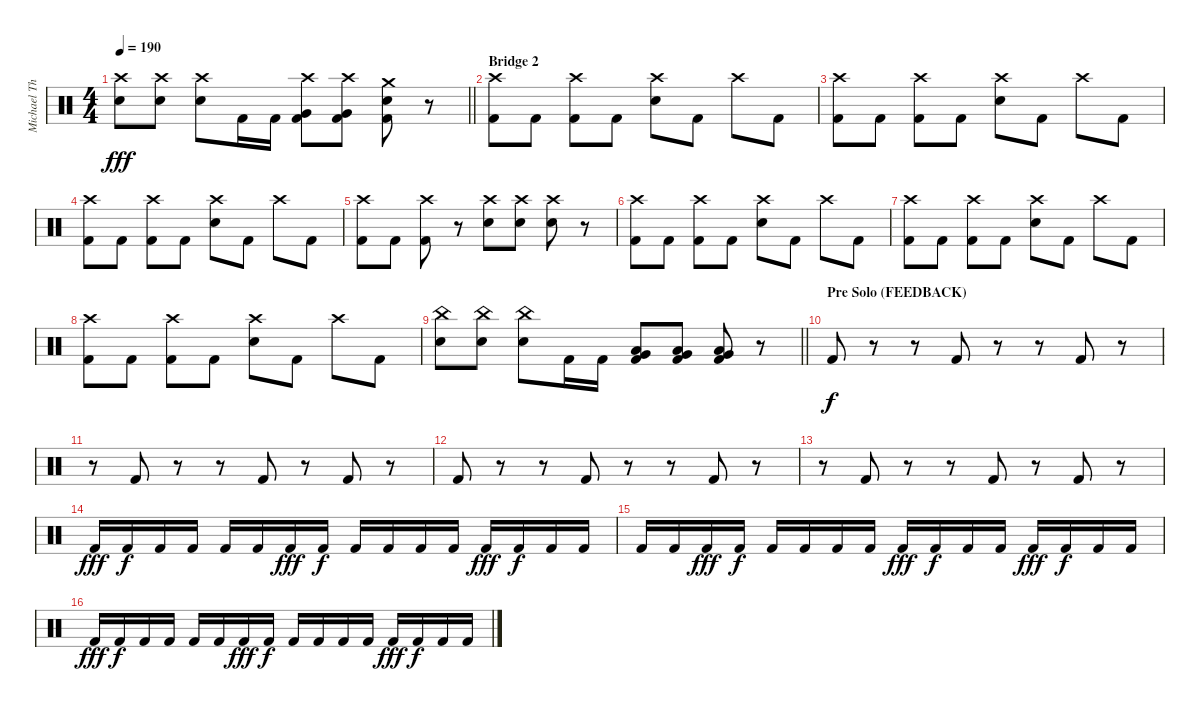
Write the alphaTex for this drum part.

\track ("Michael Thomas Жжёт!" "Michael Th") {instrument percussion}
\staff {score}
\articulation defaults
\ts (4 4)
\tempo 190
\clef neutral
\barLineRight lightlight
\ks c
("Crash high (hit)" "Electric Snare (hit)").8{dy fff} ("Crash high (hit)" "Electric Snare (hit)").8 ("Crash high (hit)" "Electric Snare (hit)").8 "Kick (hit) 2".16 "Kick (hit) 2".16 ("Crash high (hit)" "Very Low Tom (hit)" "Kick (hit) 2").8 ("Crash high (hit)" "Very Low Tom (hit)" "Kick (hit) 2").8 ("Crash medium (hit)" "Electric Snare (hit)" "Kick (hit) 2").8 r.8 |
\section ("" "Bridge 2")
("Crash high (hit)" "Kick (hit) 2").8 "Kick (hit) 2".8 ("Crash high (hit)" "Kick (hit) 2").8 "Kick (hit) 2".8 ("Crash high (hit)" "Electric Snare (hit)").8 "Kick (hit) 2".8 "Crash high (hit)".8 "Kick (hit) 2".8 |
("Crash high (hit)" "Kick (hit) 2").8 "Kick (hit) 2".8 ("Crash high (hit)" "Kick (hit) 2").8 "Kick (hit) 2".8 ("Crash high (hit)" "Electric Snare (hit)").8 "Kick (hit) 2".8 "Crash high (hit)".8 "Kick (hit) 2".8 |
("Crash high (hit)" "Kick (hit) 2").8 "Kick (hit) 2".8 ("Crash high (hit)" "Kick (hit) 2").8 "Kick (hit) 2".8 ("Crash high (hit)" "Electric Snare (hit)").8 "Kick (hit) 2".8 "Crash high (hit)".8 "Kick (hit) 2".8 |
("Crash high (hit)" "Kick (hit) 2").8 "Kick (hit) 2".8 ("Crash high (hit)" "Kick (hit) 2").8 r.8 ("Crash high (hit)" "Electric Snare (hit)").8 ("Crash high (hit)" "Electric Snare (hit)").8 ("Crash high (hit)" "Electric Snare (hit)").8 r.8 |
("Crash high (hit)" "Kick (hit) 2").8 "Kick (hit) 2".8 ("Crash high (hit)" "Kick (hit) 2").8 "Kick (hit) 2".8 ("Crash high (hit)" "Electric Snare (hit)").8 "Kick (hit) 2".8 "Crash high (hit)".8 "Kick (hit) 2".8 |
("Crash high (hit)" "Kick (hit) 2").8 "Kick (hit) 2".8 ("Crash high (hit)" "Kick (hit) 2").8 "Kick (hit) 2".8 ("Crash high (hit)" "Electric Snare (hit)").8 "Kick (hit) 2".8 "Crash high (hit)".8 "Kick (hit) 2".8 |
("Crash high (hit)" "Kick (hit) 2").8 "Kick (hit) 2".8 ("Crash high (hit)" "Kick (hit) 2").8 "Kick (hit) 2".8 ("Crash high (hit)" "Electric Snare (hit)").8 "Kick (hit) 2".8 "Crash high (hit)".8 "Kick (hit) 2".8 |
\barLineRight lightlight
("China (hit)" "Electric Snare (hit)").8 ("China (hit)" "Electric Snare (hit)").8 ("China (hit)" "Electric Snare (hit)").8 "Kick (hit) 2".16 "Kick (hit) 2".16 ("Low Floor Tom (hit)" "Very Low Tom (hit)" "Kick (hit) 2").8 ("Low Floor Tom (hit)" "Very Low Tom (hit)" "Kick (hit) 2").8 ("Low Floor Tom (hit)" "Very Low Tom (hit)" "Kick (hit) 2").8 r.8 |
\section ("" "Pre Solo (FEEDBACK)")
"Kick (hit) 2".8{dy f} r.8 r.8 "Kick (hit) 2".8 r.8 r.8 "Kick (hit) 2".8 r.8 |
r.8 "Kick (hit) 2".8 r.8 r.8 "Kick (hit) 2".8 r.8 "Kick (hit) 2".8 r.8 |
"Kick (hit) 2".8 r.8 r.8 "Kick (hit) 2".8 r.8 r.8 "Kick (hit) 2".8 r.8 |
r.8 "Kick (hit) 2".8 r.8 r.8 "Kick (hit) 2".8 r.8 "Kick (hit) 2".8 r.8 |
"Kick (hit) 2".16{dy fff} "Kick (hit) 2".16{dy f} "Kick (hit) 2".16 "Kick (hit) 2".16 "Kick (hit) 2".16 "Kick (hit) 2".16 "Kick (hit) 2".16{dy fff} "Kick (hit) 2".16{dy f} "Kick (hit) 2".16 "Kick (hit) 2".16 "Kick (hit) 2".16 "Kick (hit) 2".16 "Kick (hit) 2".16{dy fff} "Kick (hit) 2".16{dy f} "Kick (hit) 2".16 "Kick (hit) 2".16 |
"Kick (hit) 2".16 "Kick (hit) 2".16 "Kick (hit) 2".16{dy fff} "Kick (hit) 2".16{dy f} "Kick (hit) 2".16 "Kick (hit) 2".16 "Kick (hit) 2".16 "Kick (hit) 2".16 "Kick (hit) 2".16{dy fff} "Kick (hit) 2".16{dy f} "Kick (hit) 2".16 "Kick (hit) 2".16 "Kick (hit) 2".16{dy fff} "Kick (hit) 2".16{dy f} "Kick (hit) 2".16 "Kick (hit) 2".16 |
"Kick (hit) 2".16{dy fff} "Kick (hit) 2".16{dy f} "Kick (hit) 2".16 "Kick (hit) 2".16 "Kick (hit) 2".16 "Kick (hit) 2".16 "Kick (hit) 2".16{dy fff} "Kick (hit) 2".16{dy f} "Kick (hit) 2".16 "Kick (hit) 2".16 "Kick (hit) 2".16 "Kick (hit) 2".16 "Kick (hit) 2".16{dy fff} "Kick (hit) 2".16{dy f} "Kick (hit) 2".16 "Kick (hit) 2".16
